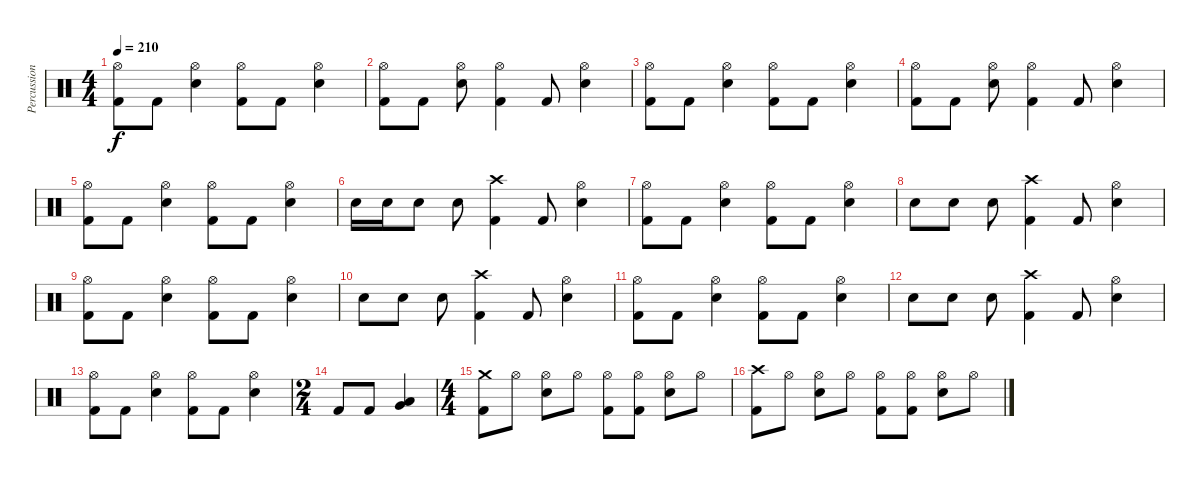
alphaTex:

\track ("Percussion" "Percussion") {instrument percussion}
\staff {score}
\articulation defaults
\ts (4 4)
\tempo 210
\clef neutral
\ks c
("Hi-Hat (open)" "Kick (hit) 2").8{dy f} "Kick (hit) 2".8 ("Hi-Hat (open)" "Snare (hit) 2").4 ("Hi-Hat (open)" "Kick (hit) 2").8 "Kick (hit) 2".8 ("Hi-Hat (open)" "Snare (hit) 2").4 |
("Hi-Hat (open)" "Kick (hit) 2").8 "Kick (hit) 2".8 ("Hi-Hat (open)" "Snare (hit) 2").8 ("Hi-Hat (open)" "Kick (hit) 2").4 "Kick (hit) 2".8 ("Hi-Hat (open)" "Snare (hit) 2").4 |
("Hi-Hat (open)" "Kick (hit) 2").8 "Kick (hit) 2".8 ("Hi-Hat (open)" "Snare (hit) 2").4 ("Hi-Hat (open)" "Kick (hit) 2").8 "Kick (hit) 2".8 ("Hi-Hat (open)" "Snare (hit) 2").4 |
("Hi-Hat (open)" "Kick (hit) 2").8 "Kick (hit) 2".8 ("Hi-Hat (open)" "Snare (hit) 2").8 ("Hi-Hat (open)" "Kick (hit) 2").4 "Kick (hit) 2".8 ("Hi-Hat (open)" "Snare (hit) 2").4 |
("Hi-Hat (open)" "Kick (hit) 2").8 "Kick (hit) 2".8 ("Hi-Hat (open)" "Snare (hit) 2").4 ("Hi-Hat (open)" "Kick (hit) 2").8 "Kick (hit) 2".8 ("Hi-Hat (open)" "Snare (hit) 2").4 |
"Snare (hit) 2".16 "Snare (hit) 2".16 "Snare (hit) 2".8 "Snare (hit) 2".8 ("Crash high (hit)" "Kick (hit) 2").4 "Kick (hit) 2".8 ("Hi-Hat (open)" "Snare (hit) 2").4 |
("Hi-Hat (open)" "Kick (hit) 2").8 "Kick (hit) 2".8 ("Hi-Hat (open)" "Snare (hit) 2").4 ("Hi-Hat (open)" "Kick (hit) 2").8 "Kick (hit) 2".8 ("Hi-Hat (open)" "Snare (hit) 2").4 |
"Snare (hit) 2".8 "Snare (hit) 2".8 "Snare (hit) 2".8 ("Crash high (hit)" "Kick (hit) 2").4 "Kick (hit) 2".8 ("Hi-Hat (open)" "Snare (hit) 2").4 |
("Hi-Hat (open)" "Kick (hit) 2").8 "Kick (hit) 2".8 ("Hi-Hat (open)" "Snare (hit) 2").4 ("Hi-Hat (open)" "Kick (hit) 2").8 "Kick (hit) 2".8 ("Hi-Hat (open)" "Snare (hit) 2").4 |
"Snare (hit) 2".8 "Snare (hit) 2".8 "Snare (hit) 2".8 ("Crash high (hit)" "Kick (hit) 2").4 "Kick (hit) 2".8 ("Hi-Hat (open)" "Snare (hit) 2").4 |
("Hi-Hat (open)" "Kick (hit) 2").8 "Kick (hit) 2".8 ("Hi-Hat (open)" "Snare (hit) 2").4 ("Hi-Hat (open)" "Kick (hit) 2").8 "Kick (hit) 2".8 ("Hi-Hat (open)" "Snare (hit) 2").4 |
"Snare (hit) 2".8 "Snare (hit) 2".8 "Snare (hit) 2".8 ("Crash high (hit)" "Kick (hit) 2").4 "Kick (hit) 2".8 ("Hi-Hat (open)" "Snare (hit) 2").4 |
("Hi-Hat (open)" "Kick (hit) 2").8 "Kick (hit) 2".8 ("Hi-Hat (open)" "Snare (hit) 2").4 ("Hi-Hat (open)" "Kick (hit) 2").8 "Kick (hit) 2".8 ("Hi-Hat (open)" "Snare (hit) 2").4 |
\ts (2 4)
"Kick (hit) 2".8 "Kick (hit) 2".8 ("Very Low Tom (hit)" "Low Floor Tom (hit)").4 |
\ts (4 4)
("Crash medium (hit)" "Kick (hit) 2").8 "Hi-Hat (open)".8 ("Hi-Hat (open)" "Snare (hit) 2").8 "Hi-Hat (open)".8 ("Hi-Hat (open)" "Kick (hit) 2").8 ("Hi-Hat (open)" "Kick (hit) 2").8 ("Hi-Hat (open)" "Snare (hit) 2").8 "Hi-Hat (open)".8 |
("Crash high (hit)" "Kick (hit) 2").8 "Hi-Hat (open)".8 ("Hi-Hat (open)" "Snare (hit) 2").8 "Hi-Hat (open)".8 ("Hi-Hat (open)" "Kick (hit) 2").8 ("Hi-Hat (open)" "Kick (hit) 2").8 ("Hi-Hat (open)" "Snare (hit) 2").8 "Hi-Hat (open)".8
